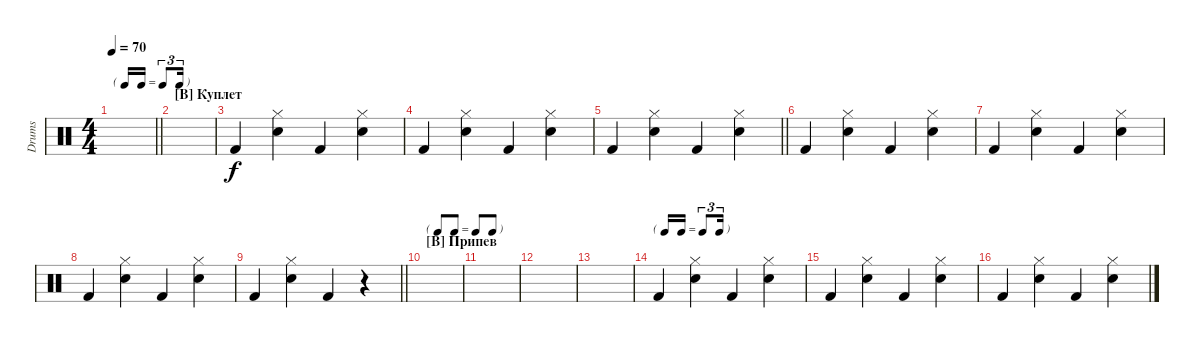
\defaultSystemsLayout 4
\bracketExtendMode groupsimilarinstruments
\otherSystemsTrackNameOrientation horizontal
\track ("Drumkit" "Drums") {instrument percussion}
\staff {score}
\articulation defaults
\ts (4 4)
\tf triplet16th
\scale
0.0694289
\tempo 70
\accidentals auto
\clef neutral
\ottava regular
\simile none
\barLineRight lightlight
\ks c
|
\section ("B" "Куплет")
\scale
0.480271 |
\scale
0.519746 "Kick (hit) 2".4{beam Up} ("Snare (hit) 2" "Hi-Hat (closed)").4{beam Down} "Kick (hit) 2".4{beam Up} ("Snare (hit) 2" "Hi-Hat (closed)").4{beam Down} |
\scale
0.522322 "Kick (hit) 2".4{beam Up} ("Snare (hit) 2" "Hi-Hat (closed)").4{beam Down} "Kick (hit) 2".4{beam Up} ("Snare (hit) 2" "Hi-Hat (closed)").4{beam Down} |
\scale
0.477654
\barLineRight lightlight "Kick (hit) 2".4{beam Up}
("Snare (hit) 2" "Hi-Hat (closed)").4{beam Down} "Kick (hit) 2".4{beam Up} ("Snare (hit) 2" "Hi-Hat (closed)").4{beam Down} |
\scale
0.505387 "Kick (hit) 2".4{beam Up} ("Snare (hit) 2" "Hi-Hat (closed)").4{beam Down} "Kick (hit) 2".4{beam Up} ("Snare (hit) 2" "Hi-Hat (closed)").4{beam Down} |
\scale
0.49406 "Kick (hit) 2".4{beam Up} ("Snare (hit) 2" "Hi-Hat (closed)").4{beam Down} "Kick (hit) 2".4{beam Up} ("Snare (hit) 2" "Hi-Hat (closed)").4{beam Down} |
\scale
0.518727 "Kick (hit) 2".4{beam Up} ("Snare (hit) 2" "Hi-Hat (closed)").4{beam Down} "Kick (hit) 2".4{beam Up} ("Snare (hit) 2" "Hi-Hat (closed)").4{beam Down} |
\scale
0.480535
\barLineRight lightlight "Kick (hit) 2".4{beam Up}
("Snare (hit) 2" "Hi-Hat (closed)").4{beam Down} "Kick (hit) 2".4{beam Up} r.4{beam Up} |
\tf none
\section ("B" "Припев")
\scale
0.510566 |
\scale
0.489342 |
|
|
\tf triplet16th
\scale
0.469385 "Kick (hit) 2".4{beam Up} ("Snare (hit) 2" "Hi-Hat (closed)").4{beam Down} "Kick (hit) 2".4{beam Up} ("Snare (hit) 2" "Hi-Hat (closed)").4{beam Down} |
\scale
0.531005 "Kick (hit) 2".4{beam Up} ("Snare (hit) 2" "Hi-Hat (closed)").4{beam Down} "Kick (hit) 2".4{beam Up} ("Snare (hit) 2" "Hi-Hat (closed)").4{beam Down} |
\scale
0.390425 "Kick (hit) 2".4{beam Up} ("Snare (hit) 2" "Hi-Hat (closed)").4{beam Down} "Kick (hit) 2".4{beam Up} ("Snare (hit) 2" "Hi-Hat (closed)").4{beam Down}
